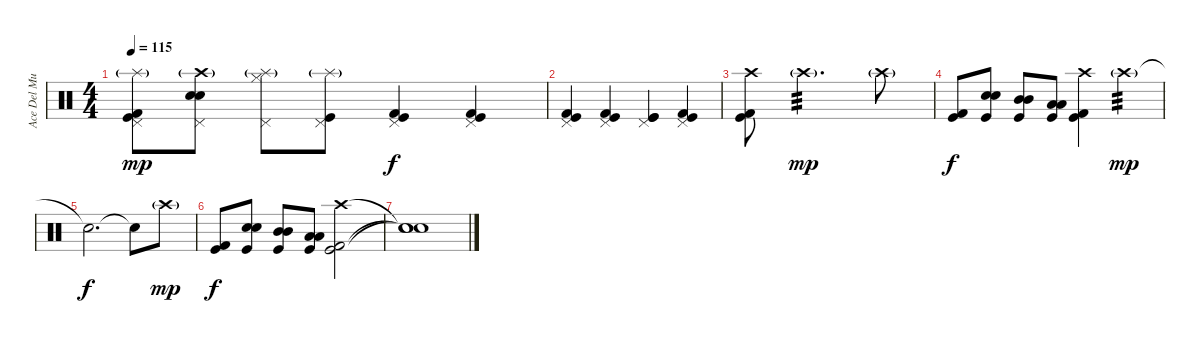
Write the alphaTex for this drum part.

\track ("Ace Del Mundo(Drums)" "Ace Del Mu") {instrument percussion}
\staff {score}
\articulation defaults
\ts (4 4)
\tempo 115
\clef neutral
\ks c
("Pedal Hi-Hat (hit)" "Kick (hit) 2" "Kick (hit)" "Splash (hit)"{g}).8{dy mp} ("Pedal Hi-Hat (hit)" "Electric Snare (hit)" "Snare (hit) 2" "Crash high (hit)"{g}).8 ("Pedal Hi-Hat (hit)" "Hi-Hat (closed)" "Splash (hit)"{g}).8 ("Pedal Hi-Hat (hit)" "Kick (hit)" "Splash (hit)"{g}).8 ("Pedal Hi-Hat (hit)" "Kick (hit) 2" "Kick (hit)").4{dy f} ("Pedal Hi-Hat (hit)" "Kick (hit) 2" "Kick (hit)").4 |
("Pedal Hi-Hat (hit)" "Kick (hit) 2" "Kick (hit)").4 ("Pedal Hi-Hat (hit)" "Kick (hit) 2" "Kick (hit)").4 ("Pedal Hi-Hat (hit)" "Kick (hit)" "Kick (hit)").4 ("Pedal Hi-Hat (hit)" "Kick (hit) 2" "Kick (hit)").4 |
("Crash high (hit)" "Kick (hit) 2" "Kick (hit)").8 "Crash high (hit)"{g}.2{d tp 3 dy mp} "Crash high (hit)"{g}.8 |
("Kick (hit) 2" "Kick (hit)").8{dy f} ("Electric Snare (hit)" "Snare (hit) 2" "Kick (hit)").8 ("Mid Tom (hit)" "Mid Tom (hit)" "Kick (hit)").8 ("Low Tom (hit)" "Low Tom (hit)" "Kick (hit)").8 ("Crash high (hit)" "Kick (hit) 2" "Kick (hit)").4 "Crash high (hit)"{g}.4{tp 3 dy mp} |
"Snare (hit)"{t}.2{d dy f} "Snare (hit)"{t}.8 "Crash high (hit)"{g}.8{dy mp} |
("Kick (hit) 2" "Kick (hit)").8{dy f} ("Electric Snare (hit)" "Snare (hit) 2" "Kick (hit)").8 ("Mid Tom (hit)" "Mid Tom (hit)" "Kick (hit)").8 ("Low Tom (hit)" "Low Tom (hit)" "Kick (hit)").8 ("Crash high (hit)" "Kick (hit) 2" "Kick (hit)").2 |
("Snare (hit)"{t} "Snare (hit)"{t} "Snare (hit)"{t}).1
